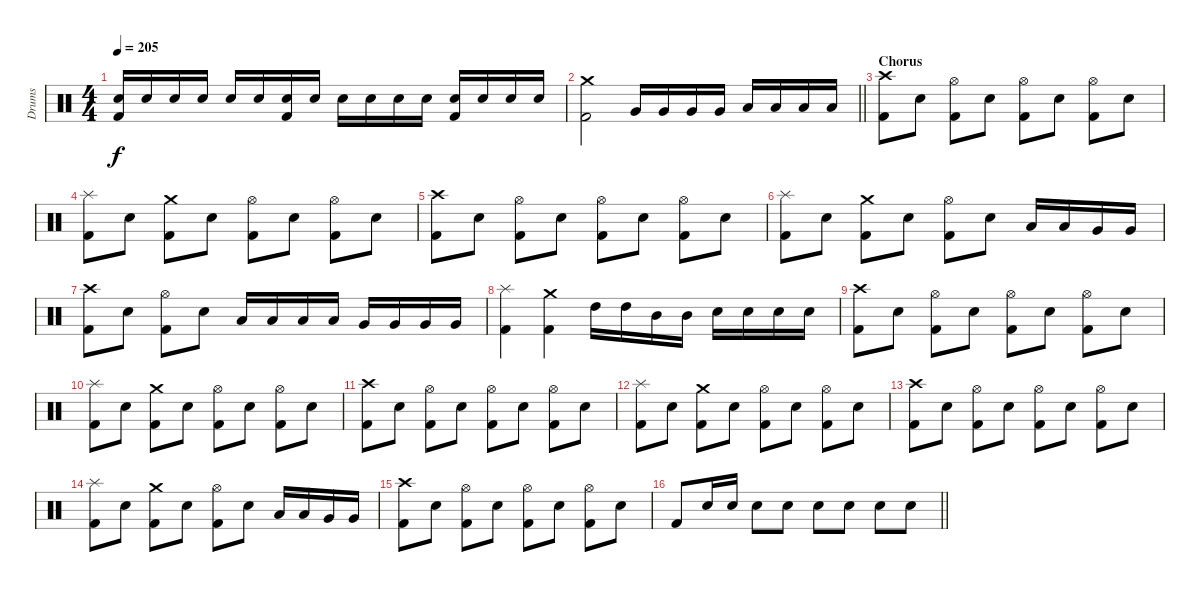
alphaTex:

\track ("Drums" "Drums") {instrument percussion}
\staff {score}
\articulation defaults
\ts (4 4)
\tempo 205
\clef neutral
\ks c
("Electric Snare (hit)" "Kick (hit) 2").16{dy f} "Electric Snare (hit)".16 "Electric Snare (hit)".16 "Electric Snare (hit)".16 "Electric Snare (hit)".16 "Electric Snare (hit)".16 ("Electric Snare (hit)" "Kick (hit) 2").16 "Electric Snare (hit)".16 "Electric Snare (hit)".16 "Electric Snare (hit)".16 "Electric Snare (hit)".16 "Electric Snare (hit)".16 ("Electric Snare (hit)" "Kick (hit) 2").16 "Electric Snare (hit)".16 "Electric Snare (hit)".16 "Electric Snare (hit)".16 |
\barLineRight lightlight
("Crash medium (hit)" "Kick (hit) 2").2 "Very Low Tom (hit)".16 "Very Low Tom (hit)".16 "Very Low Tom (hit)".16 "Very Low Tom (hit)".16 "Low Floor Tom (hit)".16 "Low Floor Tom (hit)".16 "Low Floor Tom (hit)".16 "Low Floor Tom (hit)".16 |
\section ("" "Chorus")
("Crash high (hit)" "Kick (hit) 2").8 "Electric Snare (hit)".8 ("Hi-Hat (open)" "Kick (hit) 2").8 "Electric Snare (hit)".8 ("Hi-Hat (open)" "Kick (hit) 2").8 "Electric Snare (hit)".8 ("Hi-Hat (open)" "Kick (hit) 2").8 "Electric Snare (hit)".8 |
("Splash (hit)" "Kick (hit) 2").8 "Electric Snare (hit)".8 ("Crash medium (hit)" "Kick (hit) 2").8 "Electric Snare (hit)".8 ("Hi-Hat (open)" "Kick (hit) 2").8 "Electric Snare (hit)".8 ("Hi-Hat (open)" "Kick (hit) 2").8 "Electric Snare (hit)".8 |
("Crash high (hit)" "Kick (hit) 2").8 "Electric Snare (hit)".8 ("Hi-Hat (open)" "Kick (hit) 2").8 "Electric Snare (hit)".8 ("Hi-Hat (open)" "Kick (hit) 2").8 "Electric Snare (hit)".8 ("Hi-Hat (open)" "Kick (hit) 2").8 "Electric Snare (hit)".8 |
("Splash (hit)" "Kick (hit) 2").8 "Electric Snare (hit)".8 ("Crash medium (hit)" "Kick (hit) 2").8 "Electric Snare (hit)".8 ("Hi-Hat (open)" "Kick (hit) 2").8 "Electric Snare (hit)".8 "Low Tom (hit)".16 "Low Tom (hit)".16 "Very Low Tom (hit)".16 "Very Low Tom (hit)".16 |
("Crash high (hit)" "Kick (hit) 2").8 "Electric Snare (hit)".8 ("Hi-Hat (open)" "Kick (hit) 2").8 "Electric Snare (hit)".8 "Low Tom (hit)".16 "Low Tom (hit)".16 "Low Tom (hit)".16 "Low Tom (hit)".16 "Very Low Tom (hit)".16 "Very Low Tom (hit)".16 "Very Low Tom (hit)".16 "Very Low Tom (hit)".16 |
("Splash (hit)" "Kick (hit) 2").4 ("Crash medium (hit)" "Kick (hit) 2").4 "High Tom (hit)".16 "High Tom (hit)".16 "Mid Tom (hit)".16 "Mid Tom (hit)".16 "Electric Snare (hit)".16 "Electric Snare (hit)".16 "Electric Snare (hit)".16 "Electric Snare (hit)".16 |
("Crash high (hit)" "Kick (hit) 2").8 "Electric Snare (hit)".8 ("Hi-Hat (open)" "Kick (hit) 2").8 "Electric Snare (hit)".8 ("Hi-Hat (open)" "Kick (hit) 2").8 "Electric Snare (hit)".8 ("Hi-Hat (open)" "Kick (hit) 2").8 "Electric Snare (hit)".8 |
("Splash (hit)" "Kick (hit) 2").8 "Electric Snare (hit)".8 ("Crash medium (hit)" "Kick (hit) 2").8 "Electric Snare (hit)".8 ("Hi-Hat (open)" "Kick (hit) 2").8 "Electric Snare (hit)".8 ("Hi-Hat (open)" "Kick (hit) 2").8 "Electric Snare (hit)".8 |
("Crash high (hit)" "Kick (hit) 2").8 "Electric Snare (hit)".8 ("Hi-Hat (open)" "Kick (hit) 2").8 "Electric Snare (hit)".8 ("Hi-Hat (open)" "Kick (hit) 2").8 "Electric Snare (hit)".8 ("Hi-Hat (open)" "Kick (hit) 2").8 "Electric Snare (hit)".8 |
("Splash (hit)" "Kick (hit) 2").8 "Electric Snare (hit)".8 ("Crash medium (hit)" "Kick (hit) 2").8 "Electric Snare (hit)".8 ("Hi-Hat (open)" "Kick (hit) 2").8 "Electric Snare (hit)".8 ("Hi-Hat (open)" "Kick (hit) 2").8 "Electric Snare (hit)".8 |
("Crash high (hit)" "Kick (hit) 2").8 "Electric Snare (hit)".8 ("Hi-Hat (open)" "Kick (hit) 2").8 "Electric Snare (hit)".8 ("Hi-Hat (open)" "Kick (hit) 2").8 "Electric Snare (hit)".8 ("Hi-Hat (open)" "Kick (hit) 2").8 "Electric Snare (hit)".8 |
("Splash (hit)" "Kick (hit) 2").8 "Electric Snare (hit)".8 ("Crash medium (hit)" "Kick (hit) 2").8 "Electric Snare (hit)".8 ("Hi-Hat (open)" "Kick (hit) 2").8 "Electric Snare (hit)".8 "Low Tom (hit)".16 "Low Tom (hit)".16 "Very Low Tom (hit)".16 "Very Low Tom (hit)".16 |
("Crash high (hit)" "Kick (hit) 2").8 "Electric Snare (hit)".8 ("Hi-Hat (open)" "Kick (hit) 2").8 "Electric Snare (hit)".8 ("Hi-Hat (open)" "Kick (hit) 2").8 "Electric Snare (hit)".8 ("Hi-Hat (open)" "Kick (hit) 2").8 "Electric Snare (hit)".8 |
\barLineRight lightlight "Kick (hit) 2".8 "Electric Snare (hit)".16 "Electric Snare (hit)".16 "Electric Snare (hit)".8 "Electric Snare (hit)".8 "Electric Snare (hit)".8 "Electric Snare (hit)".8 "Electric Snare (hit)".8 "Electric Snare (hit)".8
